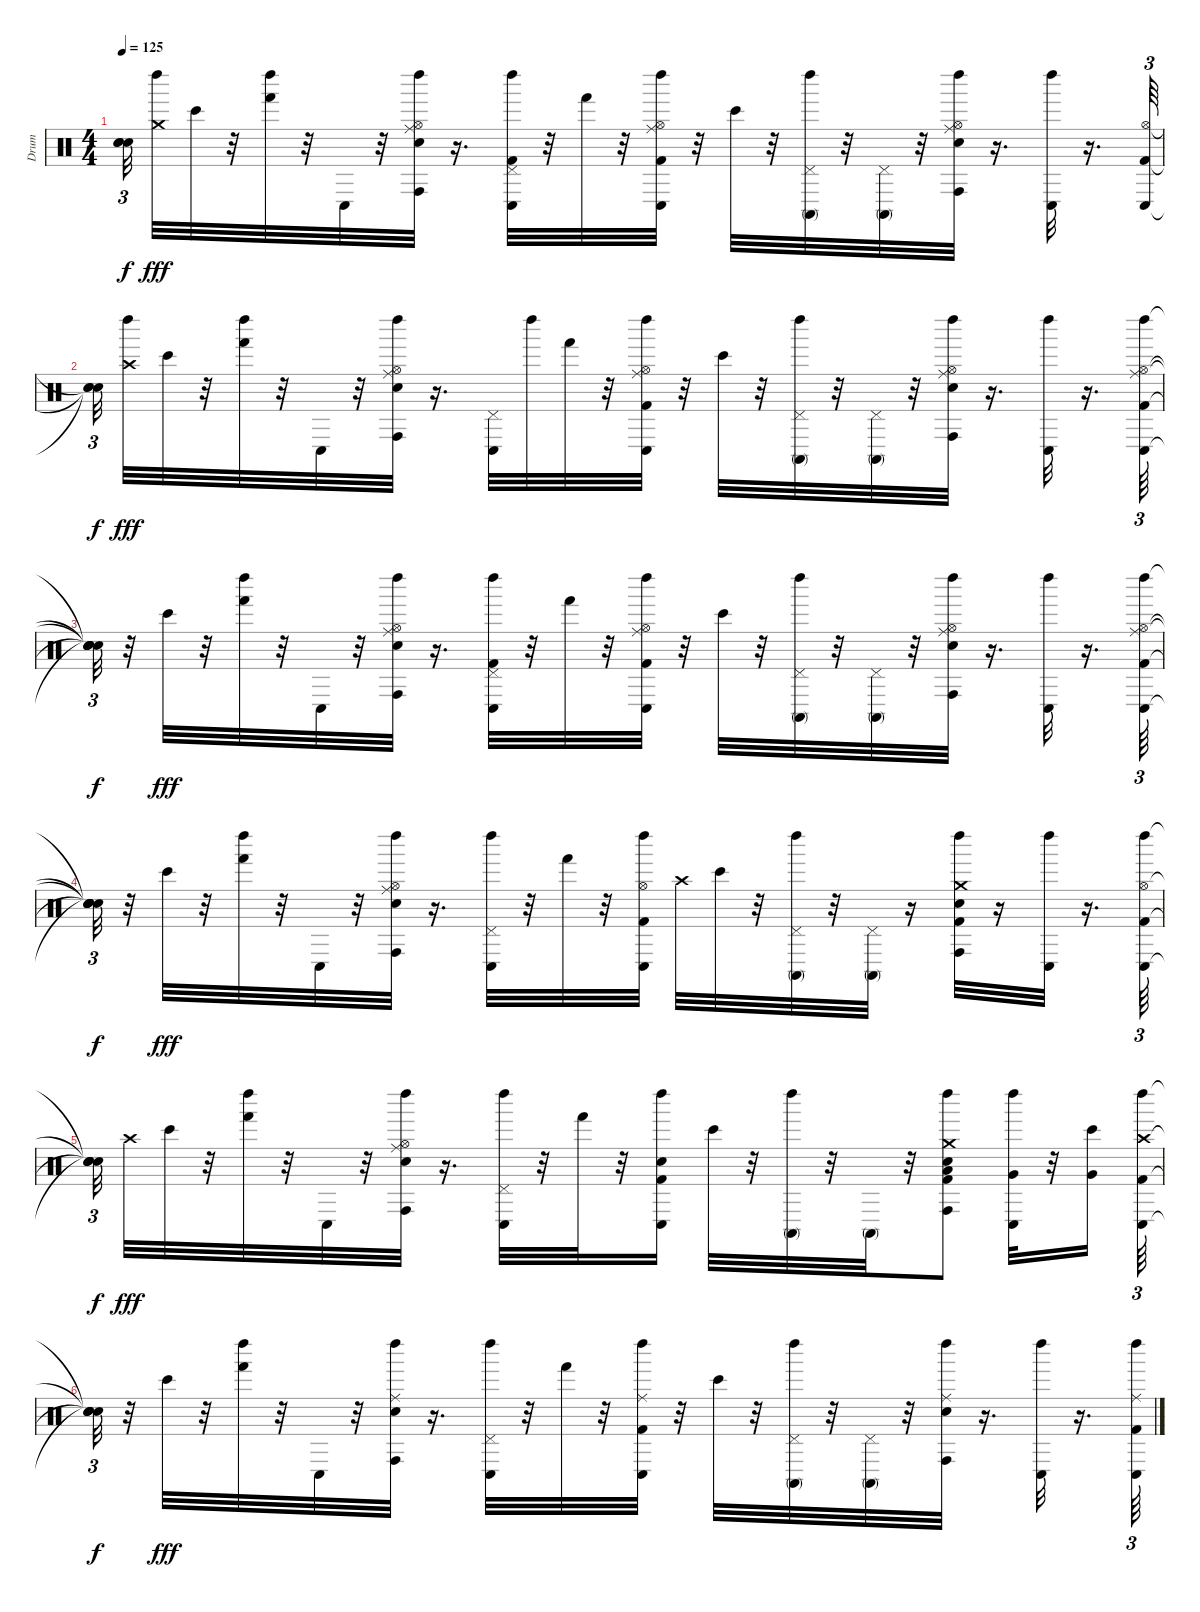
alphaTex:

\track ("Drum" "Drum") {instrument percussion}
\staff {score}
\articulation defaults
\ts (4 4)
\tempo 125
\clef neutral
\ks c
("Snare (hit)"{t} "Snare (hit)"{t} "Snare (hit)"{t}).32{tu (3 2) dy f beam splitsecondary} ("Left Maraca (hit)" "Crash medium (hit)").32{dy fff} "Bongo High (hit)".32 r.32 ("Hand (hit)" "Left Maraca (hit)").32 r.32 "Conga low (hit)".32 r.32 ("Hi-Hat (open)" "Conga high (hit)" "Left Maraca (hit)" "Electric Snare (hit)" "Ride (middle)").32 r.16{d} ("Kick (hit) 2" "Pedal Hi-Hat (hit)" "Conga low (hit)" "Left Maraca (hit)").32 r.32 "Hand (hit)".32 r.32 ("Kick (hit) 2" "Hi-Hat (open)" "Conga low (hit)" "Left Maraca (hit)" "Ride (middle)").32 r.32 "Bongo High (hit)".32 r.32 ("Pedal Hi-Hat (hit)" "Conga high (mute)" "Left Maraca (hit)").32 r.32 ("Pedal Hi-Hat (hit)" "Conga high (mute)").32 r.32 ("Hi-Hat (open)" "Conga high (hit)" "Left Maraca (hit)" "Electric Snare (hit)" "Ride (middle)").32 r.16{d} ("Conga low (hit)" "Left Maraca (hit)").32 r.16{d} ("Kick (hit) 2" "Hi-Hat (open)" "Conga low (hit)").64{tu (3 2)} |
("Snare (hit)"{t} "Snare (hit)"{t} "Snare (hit)"{t}).32{tu (3 2) dy f beam splitsecondary} ("Left Maraca (hit)" "Crash high (hit)").32{dy fff} "Bongo High (hit)".32 r.32 ("Hand (hit)" "Left Maraca (hit)").32 r.32 "Conga low (hit)".32 r.32 ("Hi-Hat (open)" "Conga high (hit)" "Left Maraca (hit)" "Electric Snare (hit)" "Ride (middle)").32 r.16{d} ("Pedal Hi-Hat (hit)" "Conga low (hit)").32 "Left Maraca (hit)".32 "Hand (hit)".32 r.32 ("Kick (hit) 2" "Hi-Hat (open)" "Conga low (hit)" "Left Maraca (hit)" "Ride (middle)").32 r.32 "Bongo High (hit)".32 r.32 ("Pedal Hi-Hat (hit)" "Conga high (mute)" "Left Maraca (hit)").32 r.32 ("Pedal Hi-Hat (hit)" "Conga high (mute)").32 r.32 ("Hi-Hat (open)" "Conga high (hit)" "Left Maraca (hit)" "Electric Snare (hit)" "Ride (middle)").32 r.16{d} ("Conga low (hit)" "Left Maraca (hit)").32 r.16{d} ("Kick (hit) 2" "Hi-Hat (open)" "Conga low (hit)" "Left Maraca (hit)" "Ride (middle)").64{tu (3 2)} |
("Snare (hit)"{t} "Snare (hit)"{t} "Snare (hit)"{t} "Snare (hit)"{t} "Snare (hit)"{t}).32{tu (3 2) dy f} r.32 "Bongo High (hit)".32{dy fff} r.32 ("Hand (hit)" "Left Maraca (hit)").32 r.32 "Conga low (hit)".32 r.32 ("Hi-Hat (open)" "Conga high (hit)" "Left Maraca (hit)" "Electric Snare (hit)" "Ride (middle)").32 r.16{d} ("Kick (hit) 2" "Pedal Hi-Hat (hit)" "Conga low (hit)" "Left Maraca (hit)").32 r.32 "Hand (hit)".32 r.32 ("Kick (hit) 2" "Hi-Hat (open)" "Conga low (hit)" "Left Maraca (hit)" "Ride (middle)").32 r.32 "Bongo High (hit)".32 r.32 ("Pedal Hi-Hat (hit)" "Conga high (mute)" "Left Maraca (hit)").32 r.32 ("Pedal Hi-Hat (hit)" "Conga high (mute)").32 r.32 ("Hi-Hat (open)" "Conga high (hit)" "Left Maraca (hit)" "Electric Snare (hit)" "Ride (middle)").32 r.16{d} ("Conga low (hit)" "Left Maraca (hit)").32 r.16{d} ("Kick (hit) 2" "Hi-Hat (open)" "Conga low (hit)" "Left Maraca (hit)" "Ride (middle)").64{tu (3 2)} |
("Snare (hit)"{t} "Snare (hit)"{t} "Snare (hit)"{t} "Snare (hit)"{t} "Snare (hit)"{t}).32{tu (3 2) dy f} r.32 "Bongo High (hit)".32{dy fff} r.32 ("Hand (hit)" "Left Maraca (hit)").32 r.32 "Conga low (hit)".32 r.32 ("Hi-Hat (open)" "Conga high (hit)" "Left Maraca (hit)" "Electric Snare (hit)" "Ride (middle)").32 r.16{d} ("Pedal Hi-Hat (hit)" "Conga low (hit)" "Left Maraca (hit)").32 r.32 "Hand (hit)".32 r.32 ("Kick (hit) 2" "Hi-Hat (open)" "Conga low (hit)" "Left Maraca (hit)").32 "Crash high (hit)".32 "Bongo High (hit)".32 r.32 ("Pedal Hi-Hat (hit)" "Conga high (mute)" "Left Maraca (hit)").32 r.32 ("Pedal Hi-Hat (hit)" "Conga high (mute)").32 r.16 ("Kick (hit) 2" "Conga high (hit)" "Left Maraca (hit)" "Electric Snare (hit)" "Crash medium (hit)").32 r.16 ("Conga low (hit)" "Left Maraca (hit)").32 r.16{d} ("Kick (hit) 2" "Hi-Hat (open)" "Conga low (hit)" "Left Maraca (hit)").64{tu (3 2)} |
("Snare (hit)"{t} "Snare (hit)"{t} "Snare (hit)"{t} "Snare (hit)"{t}).32{tu (3 2) dy f beam splitsecondary} "Crash high (hit)".32{dy fff} "Bongo High (hit)".32 r.32 ("Hand (hit)" "Left Maraca (hit)").32 r.32 "Conga low (hit)".32 r.32 ("Hi-Hat (open)" "Conga high (hit)" "Left Maraca (hit)" "Electric Snare (hit)" "Ride (middle)").32 r.16{d} ("Pedal Hi-Hat (hit)" "Conga low (hit)" "Left Maraca (hit)").32 r.32 "Hand (hit)".32 r.32 ("Kick (hit) 2" "Conga low (hit)" "Left Maraca (hit)" "Electric Snare (hit)").16 "Bongo High (hit)".32 r.32 ("Conga high (mute)" "Left Maraca (hit)").32 r.32 "Conga high (mute)".32 r.32 ("Kick (hit) 2" "Conga high (hit)" "Left Maraca (hit)" "Electric Snare (hit)" "Crash medium (hit)" "Low Tom (hit)").8 ("Conga low (hit)" "Left Maraca (hit)" "Very Low Tom (hit)").32 r.32 ("Bongo High (hit)" "Very Low Tom (hit)").16 ("Kick (hit) 2" "Conga low (hit)" "Left Maraca (hit)" "Crash high (hit)").64{tu (3 2)} |
("Snare (hit)"{t} "Snare (hit)"{t} "Snare (hit)"{t} "Snare (hit)"{t}).32{tu (3 2) dy f} r.32 "Bongo High (hit)".32{dy fff} r.32 ("Hand (hit)" "Left Maraca (hit)").32 r.32 "Conga low (hit)".32 r.32 ("Conga high (hit)" "Left Maraca (hit)" "Electric Snare (hit)" "Ride (middle)").32 r.16{d} ("Pedal Hi-Hat (hit)" "Conga low (hit)" "Left Maraca (hit)").32 r.32 "Hand (hit)".32 r.32 ("Kick (hit) 2" "Conga low (hit)" "Left Maraca (hit)" "Ride (middle)").32 r.32 "Bongo High (hit)".32 r.32 ("Pedal Hi-Hat (hit)" "Conga high (mute)" "Left Maraca (hit)").32 r.32 ("Pedal Hi-Hat (hit)" "Conga high (mute)").32 r.32 ("Conga high (hit)" "Left Maraca (hit)" "Electric Snare (hit)" "Ride (middle)").32 r.16{d} ("Conga low (hit)" "Left Maraca (hit)").32 r.16{d} ("Kick (hit) 2" "Conga low (hit)" "Left Maraca (hit)" "Ride (middle)").64{tu (3 2)}
